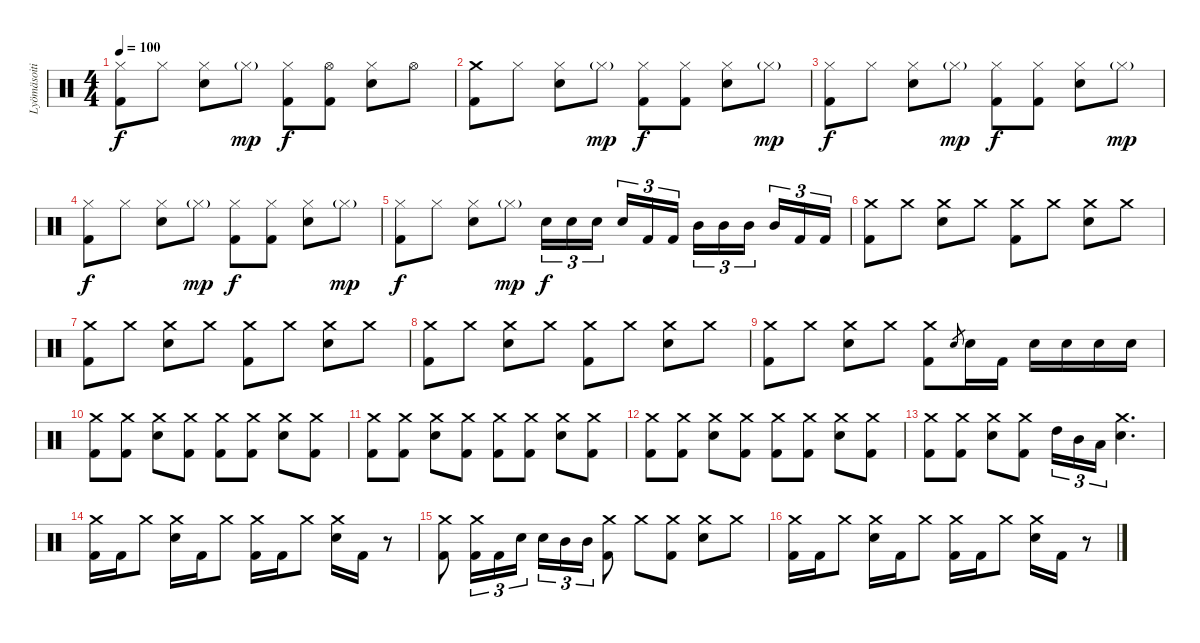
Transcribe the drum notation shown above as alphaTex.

\track ("Lyömäsoitin" "Lyömäsoiti") {instrument percussion}
\staff {score}
\articulation defaults
\ts (4 4)
\tempo 100
\clef neutral
\ks c
("Hi-Hat (closed)" "Kick (hit) 2").8{dy f} "Hi-Hat (closed)".8 ("Hi-Hat (closed)" "Electric Snare (hit)").8 "Hi-Hat (closed)"{g}.8{dy mp} ("Hi-Hat (closed)" "Kick (hit) 2").8{dy f} ("Hi-Hat (open)" "Kick (hit) 2").8 ("Hi-Hat (closed)" "Electric Snare (hit)").8 "Hi-Hat (open)".8 |
("Crash medium (hit)" "Kick (hit) 2").8 "Hi-Hat (closed)".8 ("Hi-Hat (closed)" "Electric Snare (hit)").8 "Hi-Hat (closed)"{g}.8{dy mp} ("Hi-Hat (closed)" "Kick (hit) 2").8{dy f} ("Hi-Hat (closed)" "Kick (hit) 2").8 ("Hi-Hat (closed)" "Electric Snare (hit)").8 "Hi-Hat (closed)"{g}.8{dy mp} |
("Hi-Hat (closed)" "Kick (hit) 2").8{dy f} "Hi-Hat (closed)".8 ("Hi-Hat (closed)" "Electric Snare (hit)").8 "Hi-Hat (closed)"{g}.8{dy mp} ("Hi-Hat (closed)" "Kick (hit) 2").8{dy f} ("Hi-Hat (closed)" "Kick (hit) 2").8 ("Hi-Hat (closed)" "Electric Snare (hit)").8 "Hi-Hat (closed)"{g}.8{dy mp} |
("Hi-Hat (closed)" "Kick (hit) 2").8{dy f} "Hi-Hat (closed)".8 ("Hi-Hat (closed)" "Electric Snare (hit)").8 "Hi-Hat (closed)"{g}.8{dy mp} ("Hi-Hat (closed)" "Kick (hit) 2").8{dy f} ("Hi-Hat (closed)" "Kick (hit) 2").8 ("Hi-Hat (closed)" "Electric Snare (hit)").8 "Hi-Hat (closed)"{g}.8{dy mp} |
("Hi-Hat (closed)" "Kick (hit) 2").8{dy f} "Hi-Hat (closed)".8 ("Hi-Hat (closed)" "Electric Snare (hit)").8 "Hi-Hat (closed)"{g}.8{dy mp} "Electric Snare (hit)".16{tu (3 2) dy f} "Electric Snare (hit)".16{tu (3 2)} "Electric Snare (hit)".16{tu (3 2) beam splitsecondary} "Electric Snare (hit)".16{tu (3 2)} "Kick (hit) 2".16{tu (3 2)} "Kick (hit) 2".16{tu (3 2)} "Mid Tom (hit)".16{tu (3 2)} "Mid Tom (hit)".16{tu (3 2)} "Mid Tom (hit)".16{tu (3 2) beam splitsecondary} "Mid Tom (hit)".16{tu (3 2)} "Kick (hit) 2".16{tu (3 2)} "Kick (hit) 2".16{tu (3 2)} |
("Crash medium (hit)" "Kick (hit) 2").8 "Crash medium (hit)".8 ("Crash medium (hit)" "Electric Snare (hit)").8 "Crash medium (hit)".8 ("Crash medium (hit)" "Kick (hit) 2").8 "Crash medium (hit)".8 ("Crash medium (hit)" "Electric Snare (hit)").8 "Crash medium (hit)".8 |
("Crash medium (hit)" "Kick (hit) 2").8 "Crash medium (hit)".8 ("Crash medium (hit)" "Electric Snare (hit)").8 "Crash medium (hit)".8 ("Crash medium (hit)" "Kick (hit) 2").8 "Crash medium (hit)".8 ("Crash medium (hit)" "Electric Snare (hit)").8 "Crash medium (hit)".8 |
("Crash medium (hit)" "Kick (hit) 2").8 "Crash medium (hit)".8 ("Crash medium (hit)" "Electric Snare (hit)").8 "Crash medium (hit)".8 ("Crash medium (hit)" "Kick (hit) 2").8 "Crash medium (hit)".8 ("Crash medium (hit)" "Electric Snare (hit)").8 "Crash medium (hit)".8 |
("Crash medium (hit)" "Kick (hit) 2").8 "Crash medium (hit)".8 ("Crash medium (hit)" "Electric Snare (hit)").8 "Crash medium (hit)".8 ("Crash medium (hit)" "Kick (hit) 2").8 "Electric Snare (hit)".8{gr} "Electric Snare (hit)".16 "Kick (hit) 2".16 "Electric Snare (hit)".16 "Electric Snare (hit)".16 "Electric Snare (hit)".16 "Electric Snare (hit)".16 |
("Crash medium (hit)" "Kick (hit) 2").8 ("Crash medium (hit)" "Kick (hit) 2").8 ("Crash medium (hit)" "Electric Snare (hit)").8 ("Crash medium (hit)" "Kick (hit) 2").8 ("Crash medium (hit)" "Kick (hit) 2").8 ("Crash medium (hit)" "Kick (hit) 2").8 ("Crash medium (hit)" "Electric Snare (hit)").8 ("Crash medium (hit)" "Kick (hit) 2").8 |
("Crash medium (hit)" "Kick (hit) 2").8 ("Crash medium (hit)" "Kick (hit) 2").8 ("Crash medium (hit)" "Electric Snare (hit)").8 ("Crash medium (hit)" "Kick (hit) 2").8 ("Crash medium (hit)" "Kick (hit) 2").8 ("Crash medium (hit)" "Kick (hit) 2").8 ("Crash medium (hit)" "Electric Snare (hit)").8 ("Crash medium (hit)" "Kick (hit) 2").8 |
("Crash medium (hit)" "Kick (hit) 2").8 ("Crash medium (hit)" "Kick (hit) 2").8 ("Crash medium (hit)" "Electric Snare (hit)").8 ("Crash medium (hit)" "Kick (hit) 2").8 ("Crash medium (hit)" "Kick (hit) 2").8 ("Crash medium (hit)" "Kick (hit) 2").8 ("Crash medium (hit)" "Electric Snare (hit)").8 ("Crash medium (hit)" "Kick (hit) 2").8 |
("Crash medium (hit)" "Kick (hit) 2").8 ("Crash medium (hit)" "Kick (hit) 2").8 ("Crash medium (hit)" "Electric Snare (hit)").8 ("Crash medium (hit)" "Kick (hit) 2").8 "High Tom (hit)".16{tu (3 2)} "Mid Tom (hit)".16{tu (3 2)} "Low Tom (hit)".16{tu (3 2)} ("Crash medium (hit)" "Electric Snare (hit)").4{d} |
("Crash medium (hit)" "Kick (hit) 2").16 "Kick (hit) 2".16 "Crash medium (hit)".8 ("Crash medium (hit)" "Electric Snare (hit)").16 "Kick (hit) 2".16 "Crash medium (hit)".8 ("Crash medium (hit)" "Kick (hit) 2").16 "Kick (hit) 2".16 "Crash medium (hit)".8 ("Crash medium (hit)" "Electric Snare (hit)").16 "Kick (hit) 2".16 r.8 |
("Crash medium (hit)" "Kick (hit) 2").8 ("Crash medium (hit)" "Kick (hit) 2").16{tu (3 2)} "Kick (hit) 2".16{tu (3 2)} "Electric Snare (hit)".16{tu (3 2)} "Electric Snare (hit)".16{tu (3 2)} "Mid Tom (hit)".16{tu (3 2)} "Mid Tom (hit)".16{tu (3 2)} ("Crash medium (hit)" "Kick (hit) 2").8 "Crash medium (hit)".8 ("Crash medium (hit)" "Kick (hit) 2").8 ("Crash medium (hit)" "Electric Snare (hit)").8 "Crash medium (hit)".8 |
("Crash medium (hit)" "Kick (hit) 2").16 "Kick (hit) 2".16 "Crash medium (hit)".8 ("Crash medium (hit)" "Electric Snare (hit)").16 "Kick (hit) 2".16 "Crash medium (hit)".8 ("Crash medium (hit)" "Kick (hit) 2").16 "Kick (hit) 2".16 "Crash medium (hit)".8 ("Crash medium (hit)" "Electric Snare (hit)").16 "Kick (hit) 2".16 r.8
